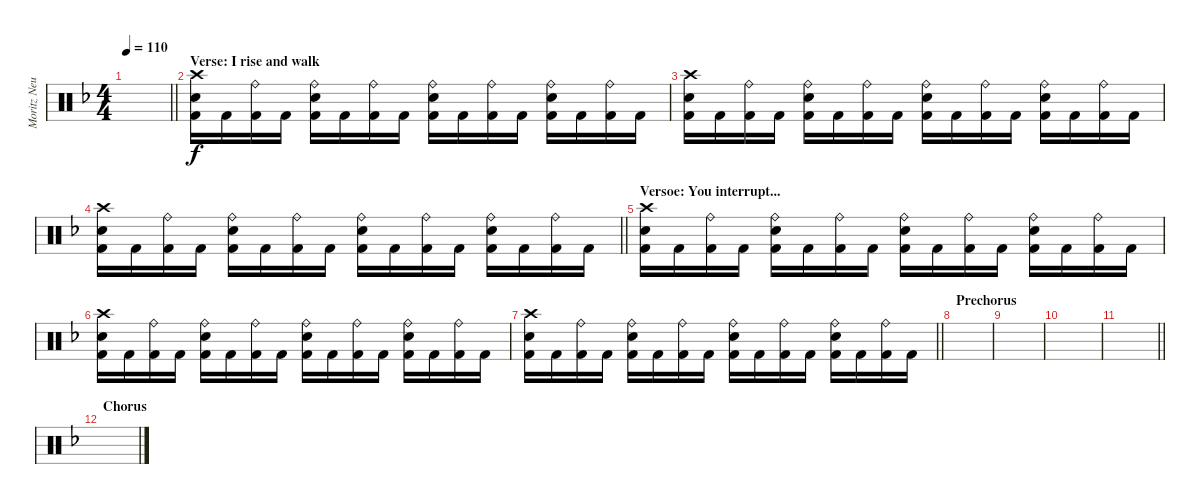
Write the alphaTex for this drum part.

\track ("Moritz Neuner" "Moritz Neu") {instrument percussion}
\staff {score}
\articulation defaults
\ts (4 4)
\tempo 110
\clef neutral
\barLineRight lightlight
\ks f
|
\section ("" "Verse: I rise and walk")
("Crash high (hit)" "Snare (hit) 2" "Kick (hit) 2").16 "Kick (hit) 2".16 ("Ride (bell)" "Kick (hit) 2").16 "Kick (hit) 2".16 ("Ride (bell)" "Snare (hit) 2" "Kick (hit) 2").16 "Kick (hit) 2".16 ("Ride (bell)" "Kick (hit) 2").16 "Kick (hit) 2".16 ("Ride (bell)" "Snare (hit) 2" "Kick (hit) 2").16 "Kick (hit) 2".16 ("Ride (bell)" "Kick (hit) 2").16 "Kick (hit) 2".16 ("Ride (bell)" "Snare (hit) 2" "Kick (hit) 2").16 "Kick (hit) 2".16 ("Ride (bell)" "Kick (hit) 2").16 "Kick (hit) 2".16 |
("Crash high (hit)" "Snare (hit) 2" "Kick (hit) 2").16 "Kick (hit) 2".16 ("Ride (bell)" "Kick (hit) 2").16 "Kick (hit) 2".16 ("Ride (bell)" "Snare (hit) 2" "Kick (hit) 2").16 "Kick (hit) 2".16 ("Ride (bell)" "Kick (hit) 2").16 "Kick (hit) 2".16 ("Ride (bell)" "Snare (hit) 2" "Kick (hit) 2").16 "Kick (hit) 2".16 ("Ride (bell)" "Kick (hit) 2").16 "Kick (hit) 2".16 ("Ride (bell)" "Snare (hit) 2" "Kick (hit) 2").16 "Kick (hit) 2".16 ("Ride (bell)" "Kick (hit) 2").16 "Kick (hit) 2".16 |
\barLineRight lightlight
("Crash high (hit)" "Snare (hit) 2" "Kick (hit) 2").16 "Kick (hit) 2".16 ("Ride (bell)" "Kick (hit) 2").16 "Kick (hit) 2".16 ("Ride (bell)" "Snare (hit) 2" "Kick (hit) 2").16 "Kick (hit) 2".16 ("Ride (bell)" "Kick (hit) 2").16 "Kick (hit) 2".16 ("Ride (bell)" "Snare (hit) 2" "Kick (hit) 2").16 "Kick (hit) 2".16 ("Ride (bell)" "Kick (hit) 2").16 "Kick (hit) 2".16 ("Ride (bell)" "Snare (hit) 2" "Kick (hit) 2").16 "Kick (hit) 2".16 ("Ride (bell)" "Kick (hit) 2").16 "Kick (hit) 2".16 |
\section ("" "Versoe: You interrupt...")
("Crash high (hit)" "Snare (hit) 2" "Kick (hit) 2").16 "Kick (hit) 2".16 ("Ride (bell)" "Kick (hit) 2").16 "Kick (hit) 2".16 ("Ride (bell)" "Snare (hit) 2" "Kick (hit) 2").16 "Kick (hit) 2".16 ("Ride (bell)" "Kick (hit) 2").16 "Kick (hit) 2".16 ("Ride (bell)" "Snare (hit) 2" "Kick (hit) 2").16 "Kick (hit) 2".16 ("Ride (bell)" "Kick (hit) 2").16 "Kick (hit) 2".16 ("Ride (bell)" "Snare (hit) 2" "Kick (hit) 2").16 "Kick (hit) 2".16 ("Ride (bell)" "Kick (hit) 2").16 "Kick (hit) 2".16 |
("Crash high (hit)" "Snare (hit) 2" "Kick (hit) 2").16 "Kick (hit) 2".16 ("Ride (bell)" "Kick (hit) 2").16 "Kick (hit) 2".16 ("Ride (bell)" "Snare (hit) 2" "Kick (hit) 2").16 "Kick (hit) 2".16 ("Ride (bell)" "Kick (hit) 2").16 "Kick (hit) 2".16 ("Ride (bell)" "Snare (hit) 2" "Kick (hit) 2").16 "Kick (hit) 2".16 ("Ride (bell)" "Kick (hit) 2").16 "Kick (hit) 2".16 ("Ride (bell)" "Snare (hit) 2" "Kick (hit) 2").16 "Kick (hit) 2".16 ("Ride (bell)" "Kick (hit) 2").16 "Kick (hit) 2".16 |
\barLineRight lightlight
("Crash high (hit)" "Snare (hit) 2" "Kick (hit) 2").16 "Kick (hit) 2".16 ("Ride (bell)" "Kick (hit) 2").16 "Kick (hit) 2".16 ("Ride (bell)" "Snare (hit) 2" "Kick (hit) 2").16 "Kick (hit) 2".16 ("Ride (bell)" "Kick (hit) 2").16 "Kick (hit) 2".16 ("Ride (bell)" "Snare (hit) 2" "Kick (hit) 2").16 "Kick (hit) 2".16 ("Ride (bell)" "Kick (hit) 2").16 "Kick (hit) 2".16 ("Ride (bell)" "Snare (hit) 2" "Kick (hit) 2").16 "Kick (hit) 2".16 ("Ride (bell)" "Kick (hit) 2").16 "Kick (hit) 2".16 |
\section ("" "Prechorus")
|
|
|
\barLineRight lightlight
|
\section ("" "Chorus")
